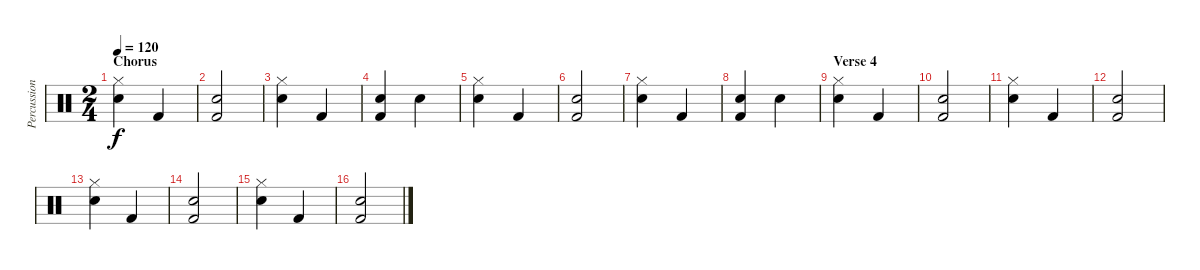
\track ("Percussion" "Percussion") {instrument percussion}
\staff {score}
\articulation defaults
\ts (2 4)
\section ("" "Chorus")
\tempo 120
\clef neutral
\ks c
("Hi-Hat (closed)" "Snare (hit) 2").4{dy f} "Kick (hit) 2".4 |
("Kick (hit) 2" "Snare (hit) 2").2 |
("Hi-Hat (closed)" "Snare (hit) 2").4 "Kick (hit) 2".4 |
("Kick (hit) 2" "Snare (hit) 2").4 "Snare (hit) 2".4 |
("Hi-Hat (closed)" "Snare (hit) 2").4 "Kick (hit) 2".4 |
("Kick (hit) 2" "Snare (hit) 2").2 |
("Hi-Hat (closed)" "Snare (hit) 2").4 "Kick (hit) 2".4 |
("Kick (hit) 2" "Snare (hit) 2").4 "Snare (hit) 2".4 |
\section ("" "Verse 4")
("Hi-Hat (closed)" "Snare (hit) 2").4 "Kick (hit) 2".4 |
("Kick (hit) 2" "Snare (hit) 2").2 |
("Hi-Hat (closed)" "Snare (hit) 2").4 "Kick (hit) 2".4 |
("Kick (hit) 2" "Snare (hit) 2").2 |
("Hi-Hat (closed)" "Snare (hit) 2").4 "Kick (hit) 2".4 |
("Kick (hit) 2" "Snare (hit) 2").2 |
("Hi-Hat (closed)" "Snare (hit) 2").4 "Kick (hit) 2".4 |
("Kick (hit) 2" "Snare (hit) 2").2
